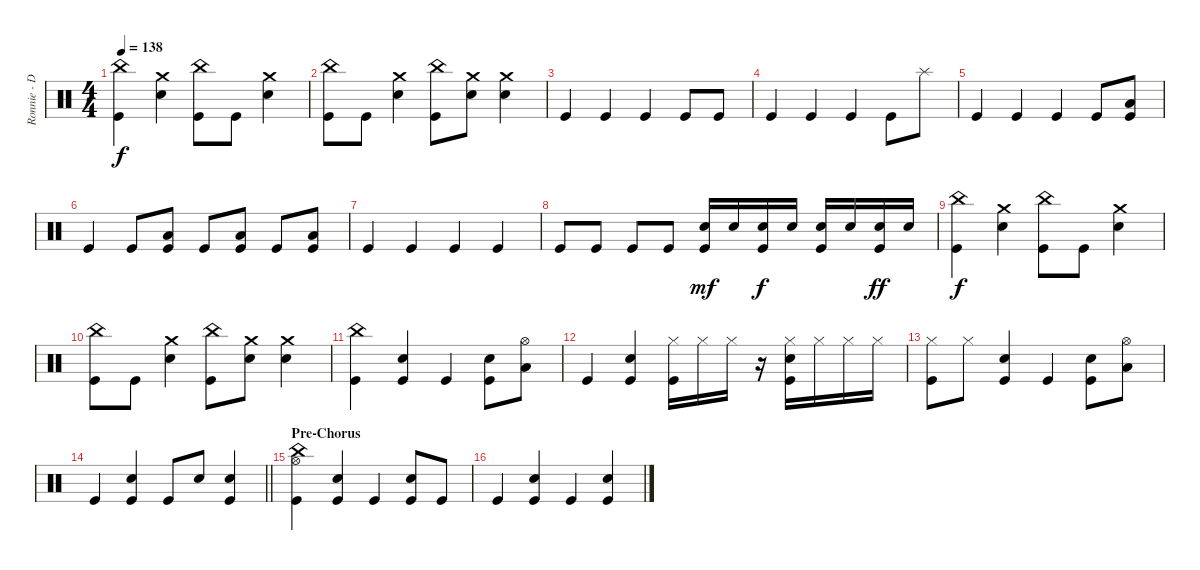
\track ("Ronnie - Drums" "Ronnie - D") {instrument percussion}
\staff {score}
\articulation defaults
\ts (4 4)
\tempo 138
\clef neutral
\ks c
("China (hit)" "Kick (hit)").4{dy f} ("Crash medium (hit)" "Snare (hit) 2").4 ("China (hit)" "Kick (hit)").8 "Kick (hit)".8 ("Crash medium (hit)" "Snare (hit) 2").4 |
("China (hit)" "Kick (hit)").8 "Kick (hit)".8 ("Crash medium (hit)" "Snare (hit) 2").4 ("China (hit)" "Kick (hit)").8 ("Crash medium (hit)" "Snare (hit) 2").8 ("Crash medium (hit)" "Snare (hit) 2").4 |
"Kick (hit)".4 "Kick (hit)".4 "Kick (hit)".4 "Kick (hit)".8 "Kick (hit)".8 |
"Kick (hit)".4 "Kick (hit)".4 "Kick (hit)".4 "Kick (hit)".8 "Splash (hit)".8 |
"Kick (hit)".4 "Kick (hit)".4 "Kick (hit)".4 "Kick (hit)".8 ("Low Tom (hit)" "Kick (hit)").8 |
"Kick (hit)".4 "Kick (hit)".8 ("Low Tom (hit)" "Kick (hit)").8 "Kick (hit)".8 ("Low Tom (hit)" "Kick (hit)").8 "Kick (hit)".8 ("Low Tom (hit)" "Kick (hit)").8 |
"Kick (hit)".4 "Kick (hit)".4 "Kick (hit)".4 "Kick (hit)".4 |
"Kick (hit)".8 "Kick (hit)".8 "Kick (hit)".8 "Kick (hit)".8 ("Snare (hit) 2" "Kick (hit)").16{dy mf} "Snare (hit) 2".16 ("Snare (hit) 2" "Kick (hit)").16{dy f} "Snare (hit) 2".16 ("Snare (hit) 2" "Kick (hit)").16 "Snare (hit) 2".16 ("Snare (hit) 2" "Kick (hit)").16{dy ff} "Snare (hit) 2".16 |
("China (hit)" "Kick (hit)").4{dy f} ("Crash medium (hit)" "Snare (hit) 2").4 ("China (hit)" "Kick (hit)").8 "Kick (hit)".8 ("Crash medium (hit)" "Snare (hit) 2").4 |
("China (hit)" "Kick (hit)").8 "Kick (hit)".8 ("Crash medium (hit)" "Snare (hit) 2").4 ("China (hit)" "Kick (hit)").8 ("Crash medium (hit)" "Snare (hit) 2").8 ("Crash medium (hit)" "Snare (hit) 2").4 |
("China (hit)" "Kick (hit)").4 ("Snare (hit) 2" "Kick (hit)").4 "Kick (hit)".4 ("Snare (hit) 2" "Kick (hit)").8 ("Hi-Hat (open)" "Low Tom (hit)").8 |
"Kick (hit)".4 ("Snare (hit) 2" "Kick (hit)").4 ("Hi-Hat (closed)" "Kick (hit)").16 "Hi-Hat (closed)".16 "Hi-Hat (closed)".16 r.16 ("Hi-Hat (closed)" "Snare (hit) 2" "Kick (hit)").16 "Hi-Hat (closed)".16 "Hi-Hat (closed)".16 "Hi-Hat (closed)".16 |
("Hi-Hat (closed)" "Kick (hit)").8 "Hi-Hat (closed)".8 ("Snare (hit) 2" "Kick (hit)").4 "Kick (hit)".4 ("Snare (hit) 2" "Kick (hit)").8 ("Hi-Hat (open)" "Low Tom (hit)").8 |
\barLineRight lightlight "Kick (hit)".4
("Snare (hit) 2" "Kick (hit)").4 "Kick (hit)".8 "Snare (hit) 2".8 ("Snare (hit) 2" "Kick (hit)").4 |
\section ("" "Pre-Chorus")
("China (hit)" "Hi-Hat (open)" "Kick (hit)").4 ("Snare (hit) 2" "Kick (hit)").4 "Kick (hit)".4 ("Snare (hit) 2" "Kick (hit)").8 "Kick (hit)".8 |
"Kick (hit)".4 ("Snare (hit) 2" "Kick (hit)").4 "Kick (hit)".4 ("Snare (hit) 2" "Kick (hit)").4
